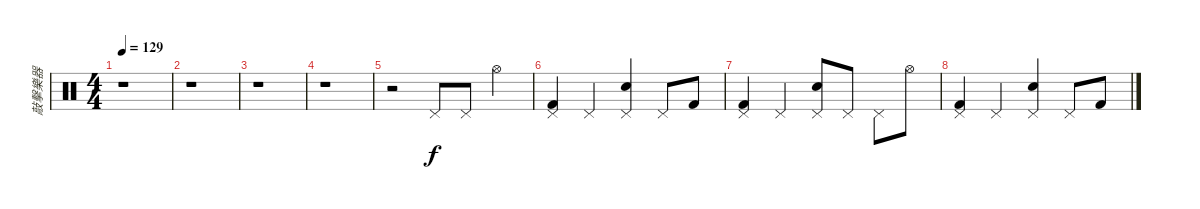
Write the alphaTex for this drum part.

\track ("敲擊樂器" "敲擊樂器") {instrument percussion}
\staff {score}
\articulation defaults
\ts (4 4)
\tempo 129
\clef neutral
\ks c
r.1{dy f} |
r.1 |
r.1 |
r.1 |
r.2 "Pedal Hi-Hat (hit)".8 "Pedal Hi-Hat (hit)".8 "Hi-Hat (open)".4 |
("Pedal Hi-Hat (hit)" "Kick (hit) 2").4 "Pedal Hi-Hat (hit)".4 ("Pedal Hi-Hat (hit)" "Snare (hit) 2").4 "Pedal Hi-Hat (hit)".8 "Kick (hit) 2".8 |
("Pedal Hi-Hat (hit)" "Kick (hit) 2").4 "Pedal Hi-Hat (hit)".4 ("Pedal Hi-Hat (hit)" "Snare (hit) 2").8 "Pedal Hi-Hat (hit)".8 "Pedal Hi-Hat (hit)".8 "Hi-Hat (open)".8 |
("Pedal Hi-Hat (hit)" "Kick (hit) 2").4 "Pedal Hi-Hat (hit)".4 ("Pedal Hi-Hat (hit)" "Snare (hit) 2").4 "Pedal Hi-Hat (hit)".8 "Kick (hit) 2".8
